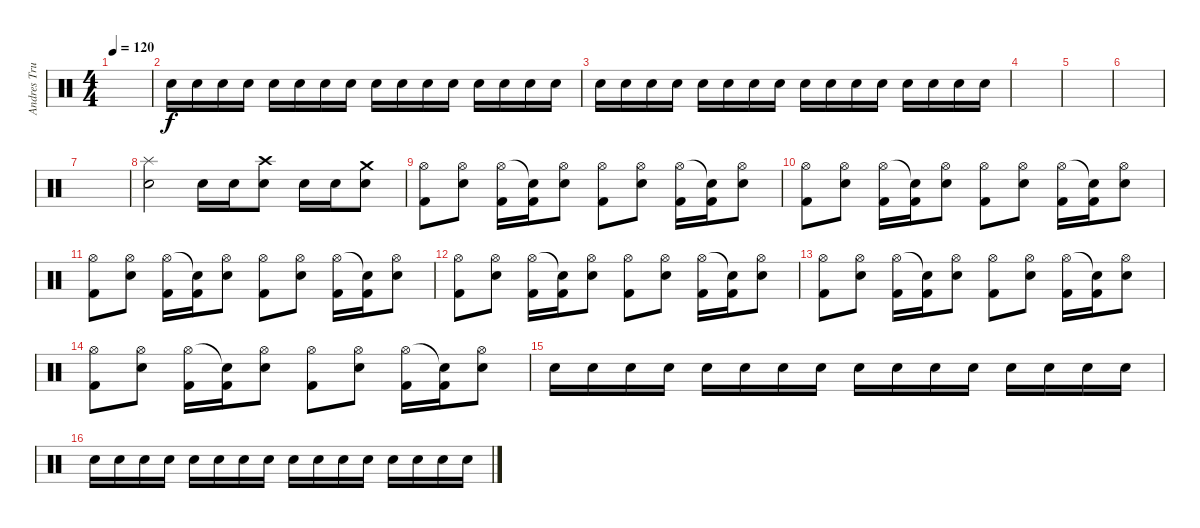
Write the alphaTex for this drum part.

\track ("Andres Trujillo" "Andres Tru") {instrument percussion}
\staff {score}
\articulation defaults
\ts (4 4)
\tempo 120
\clef neutral
\ks c
|
"Electric Snare (hit)".16{dy f volume 0} "Electric Snare (hit)".16{volume 16} "Electric Snare (hit)".16 "Electric Snare (hit)".16 "Electric Snare (hit)".16 "Electric Snare (hit)".16 "Electric Snare (hit)".16 "Electric Snare (hit)".16 "Electric Snare (hit)".16 "Electric Snare (hit)".16 "Electric Snare (hit)".16 "Electric Snare (hit)".16 "Electric Snare (hit)".16 "Electric Snare (hit)".16 "Electric Snare (hit)".16 "Electric Snare (hit)".16 |
"Electric Snare (hit)".16 "Electric Snare (hit)".16 "Electric Snare (hit)".16 "Electric Snare (hit)".16 "Electric Snare (hit)".16 "Electric Snare (hit)".16 "Electric Snare (hit)".16 "Electric Snare (hit)".16 "Electric Snare (hit)".16 "Electric Snare (hit)".16 "Electric Snare (hit)".16 "Electric Snare (hit)".16 "Electric Snare (hit)".16 "Electric Snare (hit)".16 "Electric Snare (hit)".16 "Electric Snare (hit)".16 |
|
|
|
|
("Splash (hit)" "Electric Snare (hit)").2 "Electric Snare (hit)".16 "Electric Snare (hit)".16 ("Crash high (hit)" "Electric Snare (hit)").8 "Electric Snare (hit)".16 "Electric Snare (hit)".16 ("Crash medium (hit)" "Electric Snare (hit)").8 |
("Hi-Hat (open)" "Kick (hit) 2").8 ("Hi-Hat (open)" "Electric Snare (hit)").8 ("Hi-Hat (open)" "Kick (hit) 2").16 ("Snare (hit)"{t} "Kick (hit) 2").16 ("Hi-Hat (open)" "Electric Snare (hit)").8 ("Hi-Hat (open)" "Kick (hit) 2").8 ("Hi-Hat (open)" "Electric Snare (hit)").8 ("Hi-Hat (open)" "Kick (hit) 2").16 ("Snare (hit)"{t} "Kick (hit) 2").16 ("Hi-Hat (open)" "Electric Snare (hit)").8 |
("Hi-Hat (open)" "Kick (hit) 2").8 ("Hi-Hat (open)" "Electric Snare (hit)").8 ("Hi-Hat (open)" "Kick (hit) 2").16 ("Snare (hit)"{t} "Kick (hit) 2").16 ("Hi-Hat (open)" "Electric Snare (hit)").8 ("Hi-Hat (open)" "Kick (hit) 2").8 ("Hi-Hat (open)" "Electric Snare (hit)").8 ("Hi-Hat (open)" "Kick (hit) 2").16 ("Snare (hit)"{t} "Kick (hit) 2").16 ("Hi-Hat (open)" "Electric Snare (hit)").8 |
("Hi-Hat (open)" "Kick (hit) 2").8 ("Hi-Hat (open)" "Electric Snare (hit)").8 ("Hi-Hat (open)" "Kick (hit) 2").16 ("Snare (hit)"{t} "Kick (hit) 2").16 ("Hi-Hat (open)" "Electric Snare (hit)").8 ("Hi-Hat (open)" "Kick (hit) 2").8 ("Hi-Hat (open)" "Electric Snare (hit)").8 ("Hi-Hat (open)" "Kick (hit) 2").16 ("Snare (hit)"{t} "Kick (hit) 2").16 ("Hi-Hat (open)" "Electric Snare (hit)").8 |
("Hi-Hat (open)" "Kick (hit) 2").8 ("Hi-Hat (open)" "Electric Snare (hit)").8 ("Hi-Hat (open)" "Kick (hit) 2").16 ("Snare (hit)"{t} "Kick (hit) 2").16 ("Hi-Hat (open)" "Electric Snare (hit)").8 ("Hi-Hat (open)" "Kick (hit) 2").8 ("Hi-Hat (open)" "Electric Snare (hit)").8 ("Hi-Hat (open)" "Kick (hit) 2").16 ("Snare (hit)"{t} "Kick (hit) 2").16 ("Hi-Hat (open)" "Electric Snare (hit)").8 |
("Hi-Hat (open)" "Kick (hit) 2").8 ("Hi-Hat (open)" "Electric Snare (hit)").8 ("Hi-Hat (open)" "Kick (hit) 2").16 ("Snare (hit)"{t} "Kick (hit) 2").16 ("Hi-Hat (open)" "Electric Snare (hit)").8 ("Hi-Hat (open)" "Kick (hit) 2").8 ("Hi-Hat (open)" "Electric Snare (hit)").8 ("Hi-Hat (open)" "Kick (hit) 2").16 ("Snare (hit)"{t} "Kick (hit) 2").16 ("Hi-Hat (open)" "Electric Snare (hit)").8 |
("Hi-Hat (open)" "Kick (hit) 2").8 ("Hi-Hat (open)" "Electric Snare (hit)").8 ("Hi-Hat (open)" "Kick (hit) 2").16 ("Snare (hit)"{t} "Kick (hit) 2").16 ("Hi-Hat (open)" "Electric Snare (hit)").8 ("Hi-Hat (open)" "Kick (hit) 2").8 ("Hi-Hat (open)" "Electric Snare (hit)").8 ("Hi-Hat (open)" "Kick (hit) 2").16 ("Snare (hit)"{t} "Kick (hit) 2").16 ("Hi-Hat (open)" "Electric Snare (hit)").8 |
"Electric Snare (hit)".16{volume 0} "Electric Snare (hit)".16{volume 16} "Electric Snare (hit)".16 "Electric Snare (hit)".16 "Electric Snare (hit)".16 "Electric Snare (hit)".16 "Electric Snare (hit)".16 "Electric Snare (hit)".16 "Electric Snare (hit)".16 "Electric Snare (hit)".16 "Electric Snare (hit)".16 "Electric Snare (hit)".16 "Electric Snare (hit)".16 "Electric Snare (hit)".16 "Electric Snare (hit)".16 "Electric Snare (hit)".16 |
"Electric Snare (hit)".16 "Electric Snare (hit)".16 "Electric Snare (hit)".16 "Electric Snare (hit)".16 "Electric Snare (hit)".16 "Electric Snare (hit)".16 "Electric Snare (hit)".16 "Electric Snare (hit)".16 "Electric Snare (hit)".16 "Electric Snare (hit)".16 "Electric Snare (hit)".16 "Electric Snare (hit)".16 "Electric Snare (hit)".16 "Electric Snare (hit)".16 "Electric Snare (hit)".16 "Electric Snare (hit)".16
